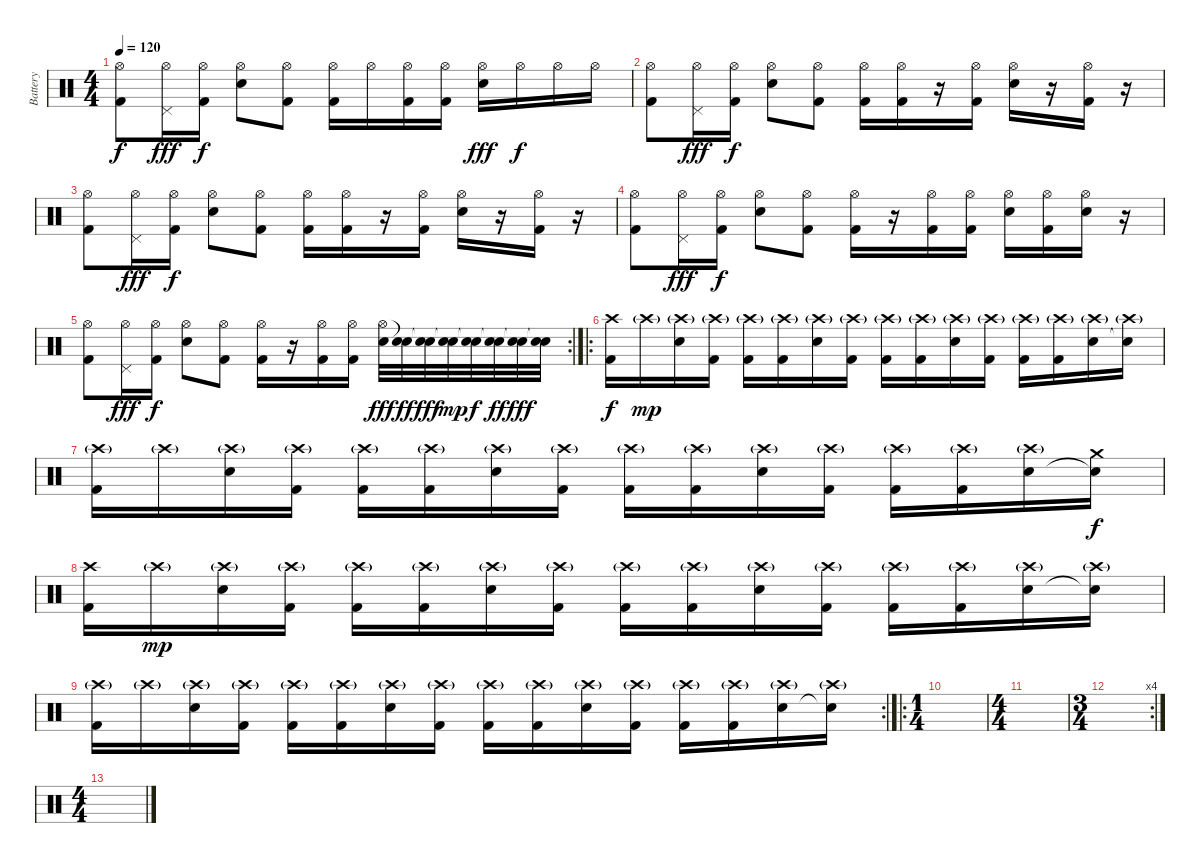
\track ("Battery" "Battery") {instrument percussion}
\staff {score}
\articulation defaults
\ts (4 4)
\tempo 120
\clef neutral
\ks c
("Hi-Hat (open)" "Kick (hit) 2").8{dy f} ("Hi-Hat (open)" "Pedal Hi-Hat (hit)").16{dy fff} ("Hi-Hat (open)" "Kick (hit) 2").16{dy f} ("Hi-Hat (open)" "Electric Snare (hit)").8 ("Hi-Hat (open)" "Kick (hit) 2").8 ("Hi-Hat (open)" "Kick (hit) 2").16 "Hi-Hat (open)".16 ("Hi-Hat (open)" "Kick (hit) 2").16 ("Hi-Hat (open)" "Kick (hit) 2").16 ("Hi-Hat (open)" "Electric Snare (hit)").16{dy fff} "Hi-Hat (open)".16{dy f} "Hi-Hat (open)".16 "Hi-Hat (open)".16 |
("Hi-Hat (open)" "Kick (hit) 2").8 ("Hi-Hat (open)" "Pedal Hi-Hat (hit)").16{dy fff} ("Hi-Hat (open)" "Kick (hit) 2").16{dy f} ("Hi-Hat (open)" "Electric Snare (hit)").8 ("Hi-Hat (open)" "Kick (hit) 2").8 ("Hi-Hat (open)" "Kick (hit) 2").16 ("Hi-Hat (open)" "Kick (hit) 2").16 r.16 ("Hi-Hat (open)" "Kick (hit) 2").16 ("Hi-Hat (open)" "Electric Snare (hit)").16 r.16 ("Hi-Hat (open)" "Kick (hit) 2").16 r.16 |
("Hi-Hat (open)" "Kick (hit) 2").8 ("Hi-Hat (open)" "Pedal Hi-Hat (hit)").16{dy fff} ("Hi-Hat (open)" "Kick (hit) 2").16{dy f} ("Hi-Hat (open)" "Electric Snare (hit)").8 ("Hi-Hat (open)" "Kick (hit) 2").8 ("Hi-Hat (open)" "Kick (hit) 2").16 ("Hi-Hat (open)" "Kick (hit) 2").16 r.16 ("Hi-Hat (open)" "Kick (hit) 2").16 ("Hi-Hat (open)" "Electric Snare (hit)").16 r.16 ("Hi-Hat (open)" "Kick (hit) 2").16 r.16 |
("Hi-Hat (open)" "Kick (hit) 2").8 ("Hi-Hat (open)" "Pedal Hi-Hat (hit)").16{dy fff} ("Hi-Hat (open)" "Kick (hit) 2").16{dy f} ("Hi-Hat (open)" "Electric Snare (hit)").8 ("Hi-Hat (open)" "Kick (hit) 2").8 ("Hi-Hat (open)" "Kick (hit) 2").16 r.16 ("Hi-Hat (open)" "Kick (hit) 2").16 ("Hi-Hat (open)" "Kick (hit) 2").16 ("Hi-Hat (open)" "Electric Snare (hit)").16 ("Hi-Hat (open)" "Kick (hit) 2").16 ("Hi-Hat (open)" "Electric Snare (hit)").16 r.16 |
\rc 2
("Hi-Hat (open)" "Kick (hit) 2").8 ("Hi-Hat (open)" "Pedal Hi-Hat (hit)").16{dy fff} ("Hi-Hat (open)" "Kick (hit) 2").16{dy f} ("Hi-Hat (open)" "Electric Snare (hit)").8 ("Hi-Hat (open)" "Kick (hit) 2").8 ("Hi-Hat (open)" "Kick (hit) 2").16 r.16 ("Hi-Hat (open)" "Kick (hit) 2").16 ("Hi-Hat (open)" "Kick (hit) 2").16 ("Hi-Hat (open)" "Electric Snare (hit)").32{dy fff} ("Snare (hit)"{t} "Electric Snare (hit)").32{dy ff} ("Snare (hit)"{t} "Electric Snare (hit)").32{dy fff} ("Snare (hit)"{t} "Electric Snare (hit)").32{dy mp} ("Snare (hit)"{t} "Electric Snare (hit)").32{dy f} ("Snare (hit)"{t} "Electric Snare (hit)").32{dy ff} ("Snare (hit)"{t} "Electric Snare (hit)").32{dy fff} ("Snare (hit)"{t} "Electric Snare (hit)").32 |
\ro
("Crash high (hit)" "Kick (hit) 2").16{dy f} "Crash high (hit)"{g}.16{dy mp} ("Crash high (hit)"{g} "Electric Snare (hit)").16 ("Crash high (hit)"{g} "Kick (hit) 2").16 ("Crash high (hit)"{g} "Kick (hit) 2").16 ("Crash high (hit)"{g} "Kick (hit) 2").16 ("Crash high (hit)"{g} "Electric Snare (hit)").16 ("Crash high (hit)"{g} "Kick (hit) 2").16 ("Crash high (hit)"{g} "Kick (hit) 2").16 ("Crash high (hit)"{g} "Kick (hit) 2").16 ("Crash high (hit)"{g} "Electric Snare (hit)").16 ("Crash high (hit)"{g} "Kick (hit) 2").16 ("Crash high (hit)"{g} "Kick (hit) 2").16 ("Crash high (hit)"{g} "Kick (hit) 2").16 ("Crash high (hit)"{g} "Electric Snare (hit)").16 ("Crash high (hit)"{g} "Electric Snare (hit)"{t}).16 |
("Crash high (hit)"{g} "Kick (hit) 2").16 "Crash high (hit)"{g}.16 ("Crash high (hit)"{g} "Electric Snare (hit)").16 ("Crash high (hit)"{g} "Kick (hit) 2").16 ("Crash high (hit)"{g} "Kick (hit) 2").16 ("Crash high (hit)"{g} "Kick (hit) 2").16 ("Crash high (hit)"{g} "Electric Snare (hit)").16 ("Crash high (hit)"{g} "Kick (hit) 2").16 ("Crash high (hit)"{g} "Kick (hit) 2").16 ("Crash high (hit)"{g} "Kick (hit) 2").16 ("Crash high (hit)"{g} "Electric Snare (hit)").16 ("Crash high (hit)"{g} "Kick (hit) 2").16 ("Crash high (hit)"{g} "Kick (hit) 2").16 ("Crash high (hit)"{g} "Kick (hit) 2").16 ("Crash high (hit)"{g} "Electric Snare (hit)").16 ("Crash medium (hit)" "Electric Snare (hit)"{t}).16{dy f} |
("Crash high (hit)" "Kick (hit) 2").16 "Crash high (hit)"{g}.16{dy mp} ("Crash high (hit)"{g} "Electric Snare (hit)").16 ("Crash high (hit)"{g} "Kick (hit) 2").16 ("Crash high (hit)"{g} "Kick (hit) 2").16 ("Crash high (hit)"{g} "Kick (hit) 2").16 ("Crash high (hit)"{g} "Electric Snare (hit)").16 ("Crash high (hit)"{g} "Kick (hit) 2").16 ("Crash high (hit)"{g} "Kick (hit) 2").16 ("Crash high (hit)"{g} "Kick (hit) 2").16 ("Crash high (hit)"{g} "Electric Snare (hit)").16 ("Crash high (hit)"{g} "Kick (hit) 2").16 ("Crash high (hit)"{g} "Kick (hit) 2").16 ("Crash high (hit)"{g} "Kick (hit) 2").16 ("Crash high (hit)"{g} "Electric Snare (hit)").16 ("Crash high (hit)"{g} "Electric Snare (hit)"{t}).16 |
\rc 2
("Crash high (hit)"{g} "Kick (hit) 2").16 "Crash high (hit)"{g}.16 ("Crash high (hit)"{g} "Electric Snare (hit)").16 ("Crash high (hit)"{g} "Kick (hit) 2").16 ("Crash high (hit)"{g} "Kick (hit) 2").16 ("Crash high (hit)"{g} "Kick (hit) 2").16 ("Crash high (hit)"{g} "Electric Snare (hit)").16 ("Crash high (hit)"{g} "Kick (hit) 2").16 ("Crash high (hit)"{g} "Kick (hit) 2").16 ("Crash high (hit)"{g} "Kick (hit) 2").16 ("Crash high (hit)"{g} "Electric Snare (hit)").16 ("Crash high (hit)"{g} "Kick (hit) 2").16 ("Crash high (hit)"{g} "Kick (hit) 2").16 ("Crash high (hit)"{g} "Kick (hit) 2").16 ("Crash high (hit)"{g} "Electric Snare (hit)").16 ("Crash high (hit)"{g} "Electric Snare (hit)"{t}).16 |
\ro
\ts (1 4)
|
\ts (4 4)
|
\rc 4
\ts (3 4)
|
\ts (4 4)
